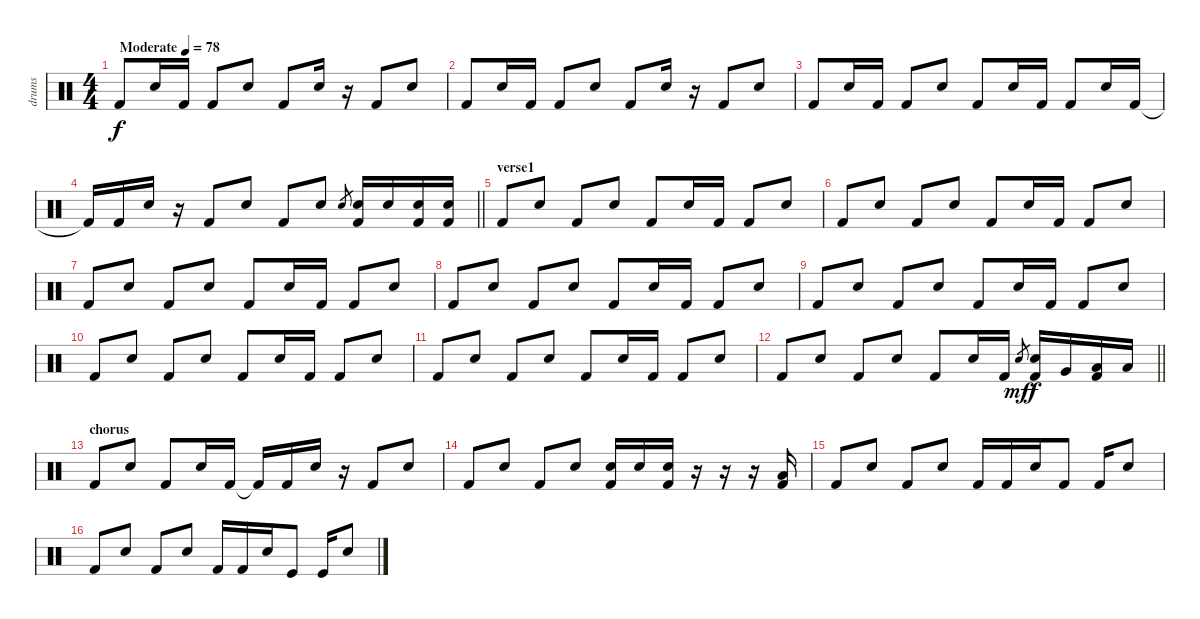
\track ("drums" "drums") {instrument percussion}
\staff {score}
\articulation defaults
\ts (4 4)
\tempo (78 "Moderate")
\clef neutral
\ks c "Kick (hit) 2".8{dy f} "Snare (hit) 2".16 "Kick (hit) 2".16 "Kick (hit) 2".8 "Snare (hit) 2".8 "Kick (hit) 2".8 "Snare (hit) 2".16
r.16 "Kick (hit) 2".8 "Snare (hit) 2".8 |
"Kick (hit) 2".8 "Snare (hit) 2".16 "Kick (hit) 2".16 "Kick (hit) 2".8 "Snare (hit) 2".8 "Kick (hit) 2".8 "Snare (hit) 2".16 r.16 "Kick (hit) 2".8 "Snare (hit) 2".8 |
"Kick (hit) 2".8 "Snare (hit) 2".16 "Kick (hit) 2".16 "Kick (hit) 2".8 "Snare (hit) 2".8 "Kick (hit) 2".8 "Snare (hit) 2".16 "Kick (hit) 2".16 "Kick (hit) 2".8 "Snare (hit) 2".16 "Kick (hit) 2".16 |
\barLineRight lightlight "Kick (hit) 2"{t}.16 "Kick (hit) 2".16 "Snare (hit) 2".16
r.16 "Kick (hit) 2".8 "Snare (hit) 2".8 "Kick (hit) 2".8 "Snare (hit) 2".8 "Snare (hit) 2".8{gr} ("Snare (hit) 2" "Kick (hit) 2").16 "Snare (hit) 2".16 ("Snare (hit) 2" "Kick (hit) 2").16 ("Snare (hit) 2" "Kick (hit) 2").16 |
\section ("" "verse1")
"Kick (hit) 2".8 "Snare (hit) 2".8 "Kick (hit) 2".8 "Snare (hit) 2".8 "Kick (hit) 2".8 "Snare (hit) 2".16 "Kick (hit) 2".16 "Kick (hit) 2".8 "Snare (hit) 2".8 |
"Kick (hit) 2".8 "Snare (hit) 2".8 "Kick (hit) 2".8 "Snare (hit) 2".8 "Kick (hit) 2".8 "Snare (hit) 2".16 "Kick (hit) 2".16 "Kick (hit) 2".8 "Snare (hit) 2".8 |
"Kick (hit) 2".8 "Snare (hit) 2".8 "Kick (hit) 2".8 "Snare (hit) 2".8 "Kick (hit) 2".8 "Snare (hit) 2".16 "Kick (hit) 2".16 "Kick (hit) 2".8 "Snare (hit) 2".8 |
"Kick (hit) 2".8 "Snare (hit) 2".8 "Kick (hit) 2".8 "Snare (hit) 2".8 "Kick (hit) 2".8 "Snare (hit) 2".16 "Kick (hit) 2".16 "Kick (hit) 2".8 "Snare (hit) 2".8 |
"Kick (hit) 2".8 "Snare (hit) 2".8 "Kick (hit) 2".8 "Snare (hit) 2".8 "Kick (hit) 2".8 "Snare (hit) 2".16 "Kick (hit) 2".16 "Kick (hit) 2".8 "Snare (hit) 2".8 |
"Kick (hit) 2".8 "Snare (hit) 2".8 "Kick (hit) 2".8 "Snare (hit) 2".8 "Kick (hit) 2".8 "Snare (hit) 2".16 "Kick (hit) 2".16 "Kick (hit) 2".8 "Snare (hit) 2".8 |
"Kick (hit) 2".8 "Snare (hit) 2".8 "Kick (hit) 2".8 "Snare (hit) 2".8 "Kick (hit) 2".8 "Snare (hit) 2".16 "Kick (hit) 2".16 "Kick (hit) 2".8 "Snare (hit) 2".8 |
\barLineRight lightlight "Kick (hit) 2".8 "Snare (hit) 2".8 "Kick (hit) 2".8 "Snare (hit) 2".8 "Kick (hit) 2".8 "Snare (hit) 2".16 "Kick (hit) 2".16 "Snare (hit) 2".8{gr dy mf}
("Snare (hit) 2" "Kick (hit) 2").16{dy f} "Very Low Tom (hit)".16 ("Low Tom (hit)" "Kick (hit) 2").16 "Low Tom (hit)".16 |
\section ("" "chorus")
"Kick (hit) 2".8 "Snare (hit) 2".8 "Kick (hit) 2".8 "Snare (hit) 2".16 "Kick (hit) 2".16 "Kick (hit) 2"{t}.16 "Kick (hit) 2".16 "Snare (hit) 2".16 r.16 "Kick (hit) 2".8 "Snare (hit) 2".8 |
"Kick (hit) 2".8 "Snare (hit) 2".8 "Kick (hit) 2".8 "Snare (hit) 2".8 ("Snare (hit) 2" "Kick (hit) 2").16 "Snare (hit) 2".16 ("Snare (hit) 2" "Kick (hit) 2").16 r.16 r.16 r.16 ("Low Floor Tom (hit)" "Kick (hit) 2").16 |
"Kick (hit) 2".8 "Snare (hit) 2".8 "Kick (hit) 2".8 "Snare (hit) 2".8 "Kick (hit) 2".16 "Kick (hit) 2".16 "Snare (hit) 2".16 "Kick (hit) 2".8 "Kick (hit) 2".16 "Snare (hit) 2".8 |
"Kick (hit) 2".8 "Snare (hit) 2".8 "Kick (hit) 2".8 "Snare (hit) 2".8 "Kick (hit) 2".16 "Kick (hit) 2".16 "Snare (hit) 2".16 "Kick (hit)".8 "Kick (hit)".16 "Snare (hit) 2".8
